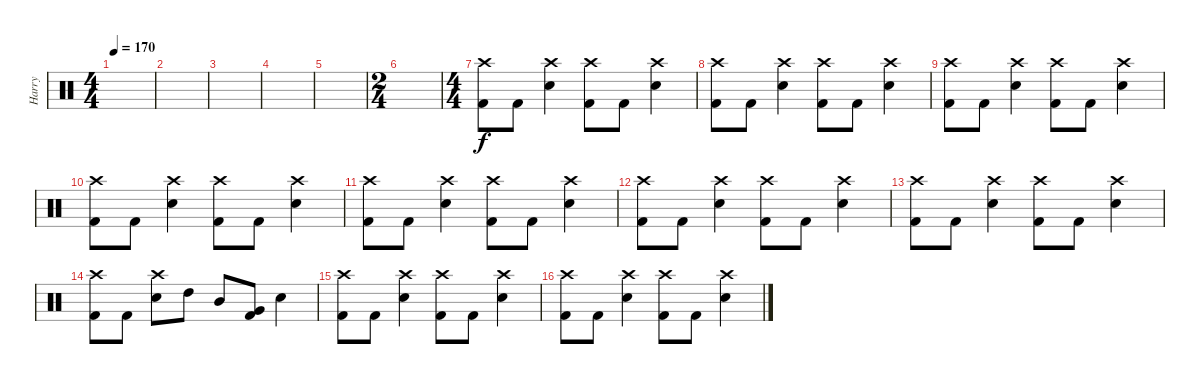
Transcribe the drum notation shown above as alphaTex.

\track ("Harry" "Harry") {instrument percussion}
\staff {score}
\articulation defaults
\ts (4 4)
\tempo 170
\clef neutral
\ks c
|
|
|
|
|
\ts (2 4)
|
\ts (4 4)
("Kick (hit) 2" "Crash high (hit)").8 "Kick (hit) 2".8 ("Snare (hit) 2" "Crash high (hit)").4 ("Kick (hit) 2" "Crash high (hit)").8 "Kick (hit) 2".8 ("Snare (hit) 2" "Crash high (hit)").4 |
("Kick (hit) 2" "Crash high (hit)").8 "Kick (hit) 2".8 ("Snare (hit) 2" "Crash high (hit)").4 ("Kick (hit) 2" "Crash high (hit)").8 "Kick (hit) 2".8 ("Snare (hit) 2" "Crash high (hit)").4 |
("Kick (hit) 2" "Crash high (hit)").8 "Kick (hit) 2".8 ("Snare (hit) 2" "Crash high (hit)").4 ("Kick (hit) 2" "Crash high (hit)").8 "Kick (hit) 2".8 ("Snare (hit) 2" "Crash high (hit)").4 |
("Kick (hit) 2" "Crash high (hit)").8 "Kick (hit) 2".8 ("Snare (hit) 2" "Crash high (hit)").4 ("Kick (hit) 2" "Crash high (hit)").8 "Kick (hit) 2".8 ("Snare (hit) 2" "Crash high (hit)").4 |
("Kick (hit) 2" "Crash high (hit)").8 "Kick (hit) 2".8 ("Snare (hit) 2" "Crash high (hit)").4 ("Kick (hit) 2" "Crash high (hit)").8 "Kick (hit) 2".8 ("Snare (hit) 2" "Crash high (hit)").4 |
("Kick (hit) 2" "Crash high (hit)").8 "Kick (hit) 2".8 ("Snare (hit) 2" "Crash high (hit)").4 ("Kick (hit) 2" "Crash high (hit)").8 "Kick (hit) 2".8 ("Snare (hit) 2" "Crash high (hit)").4 |
("Kick (hit) 2" "Crash high (hit)").8 "Kick (hit) 2".8 ("Snare (hit) 2" "Crash high (hit)").4 ("Kick (hit) 2" "Crash high (hit)").8 "Kick (hit) 2".8 ("Snare (hit) 2" "Crash high (hit)").4 |
("Kick (hit) 2" "Crash high (hit)").8 "Kick (hit) 2".8 ("Snare (hit) 2" "Crash high (hit)").8 "High Tom (hit)".8 "Mid Tom (hit)".8 ("Very Low Tom (hit)" "Kick (hit) 2").8 "Snare (hit) 2".4 |
("Kick (hit) 2" "Crash high (hit)").8 "Kick (hit) 2".8 ("Snare (hit) 2" "Crash high (hit)").4 ("Kick (hit) 2" "Crash high (hit)").8 "Kick (hit) 2".8 ("Snare (hit) 2" "Crash high (hit)").4 |
("Kick (hit) 2" "Crash high (hit)").8 "Kick (hit) 2".8 ("Snare (hit) 2" "Crash high (hit)").4 ("Kick (hit) 2" "Crash high (hit)").8 "Kick (hit) 2".8 ("Snare (hit) 2" "Crash high (hit)").4
